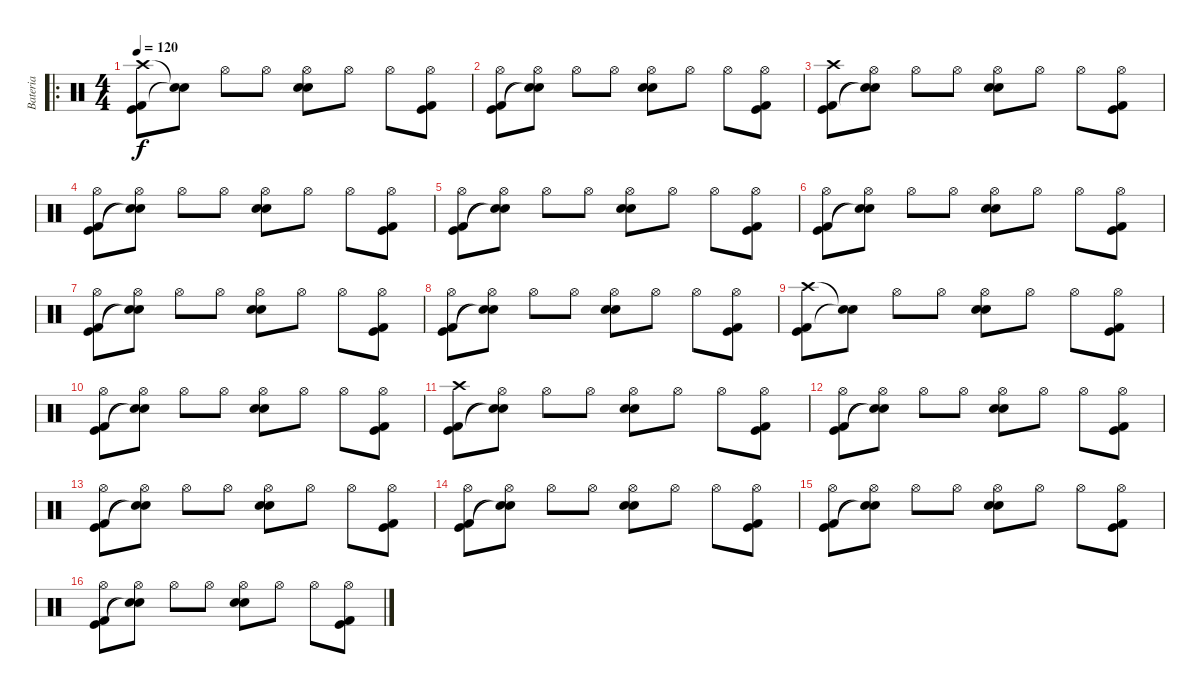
\track ("Bateria" "Bateria") {instrument percussion}
\staff {score}
\articulation defaults
\ro
\ts (4 4)
\tempo 120
\clef neutral
\ks c
("Crash high (hit)" "Kick (hit) 2" "Kick (hit)").8{dy f} ("Snare (hit)"{t} "Snare (hit)"{t}).8 "Hi-Hat (open)".8 "Hi-Hat (open)".8 ("Hi-Hat (open)" "Electric Snare (hit)" "Snare (hit) 2").8 "Hi-Hat (open)".8 "Hi-Hat (open)".8 ("Hi-Hat (open)" "Kick (hit)" "Kick (hit) 2").8 |
("Hi-Hat (open)" "Kick (hit)" "Kick (hit) 2").8 ("Hi-Hat (open)" "Snare (hit)"{t} "Snare (hit)"{t}).8 "Hi-Hat (open)".8 "Hi-Hat (open)".8 ("Hi-Hat (open)" "Electric Snare (hit)" "Snare (hit) 2").8 "Hi-Hat (open)".8 "Hi-Hat (open)".8 ("Hi-Hat (open)" "Kick (hit)" "Kick (hit) 2").8 |
("Crash high (hit)" "Kick (hit)" "Kick (hit) 2").8 ("Hi-Hat (open)" "Snare (hit)"{t} "Snare (hit)"{t}).8 "Hi-Hat (open)".8 "Hi-Hat (open)".8 ("Hi-Hat (open)" "Electric Snare (hit)" "Snare (hit) 2").8 "Hi-Hat (open)".8 "Hi-Hat (open)".8 ("Hi-Hat (open)" "Kick (hit)" "Kick (hit) 2").8 |
("Hi-Hat (open)" "Kick (hit)" "Kick (hit) 2").8 ("Hi-Hat (open)" "Snare (hit)"{t} "Snare (hit)"{t}).8 "Hi-Hat (open)".8 "Hi-Hat (open)".8 ("Hi-Hat (open)" "Electric Snare (hit)" "Snare (hit) 2").8 "Hi-Hat (open)".8 "Hi-Hat (open)".8 ("Hi-Hat (open)" "Kick (hit)" "Kick (hit) 2").8 |
("Hi-Hat (open)" "Kick (hit)" "Kick (hit) 2").8 ("Hi-Hat (open)" "Snare (hit)"{t} "Snare (hit)"{t}).8 "Hi-Hat (open)".8 "Hi-Hat (open)".8 ("Hi-Hat (open)" "Electric Snare (hit)" "Snare (hit) 2").8 "Hi-Hat (open)".8 "Hi-Hat (open)".8 ("Hi-Hat (open)" "Kick (hit)" "Kick (hit) 2").8 |
("Hi-Hat (open)" "Kick (hit)" "Kick (hit) 2").8 ("Hi-Hat (open)" "Snare (hit)"{t} "Snare (hit)"{t}).8 "Hi-Hat (open)".8 "Hi-Hat (open)".8 ("Hi-Hat (open)" "Electric Snare (hit)" "Snare (hit) 2").8 "Hi-Hat (open)".8 "Hi-Hat (open)".8 ("Hi-Hat (open)" "Kick (hit)" "Kick (hit) 2").8 |
("Hi-Hat (open)" "Kick (hit)" "Kick (hit) 2").8 ("Hi-Hat (open)" "Snare (hit)"{t} "Snare (hit)"{t}).8 "Hi-Hat (open)".8 "Hi-Hat (open)".8 ("Hi-Hat (open)" "Electric Snare (hit)" "Snare (hit) 2").8 "Hi-Hat (open)".8 "Hi-Hat (open)".8 ("Hi-Hat (open)" "Kick (hit)" "Kick (hit) 2").8 |
("Hi-Hat (open)" "Kick (hit)" "Kick (hit) 2").8 ("Hi-Hat (open)" "Snare (hit)"{t} "Snare (hit)"{t}).8 "Hi-Hat (open)".8 "Hi-Hat (open)".8 ("Hi-Hat (open)" "Electric Snare (hit)" "Snare (hit) 2").8 "Hi-Hat (open)".8 "Hi-Hat (open)".8 ("Hi-Hat (open)" "Kick (hit)" "Kick (hit) 2").8 |
("Crash high (hit)" "Kick (hit) 2" "Kick (hit)").8 ("Snare (hit)"{t} "Snare (hit)"{t}).8 "Hi-Hat (open)".8 "Hi-Hat (open)".8 ("Hi-Hat (open)" "Electric Snare (hit)" "Snare (hit) 2").8 "Hi-Hat (open)".8 "Hi-Hat (open)".8 ("Hi-Hat (open)" "Kick (hit)" "Kick (hit) 2").8 |
("Hi-Hat (open)" "Kick (hit)" "Kick (hit) 2").8 ("Hi-Hat (open)" "Snare (hit)"{t} "Snare (hit)"{t}).8 "Hi-Hat (open)".8 "Hi-Hat (open)".8 ("Hi-Hat (open)" "Electric Snare (hit)" "Snare (hit) 2").8 "Hi-Hat (open)".8 "Hi-Hat (open)".8 ("Hi-Hat (open)" "Kick (hit)" "Kick (hit) 2").8 |
("Crash high (hit)" "Kick (hit)" "Kick (hit) 2").8 ("Hi-Hat (open)" "Snare (hit)"{t} "Snare (hit)"{t}).8 "Hi-Hat (open)".8 "Hi-Hat (open)".8 ("Hi-Hat (open)" "Electric Snare (hit)" "Snare (hit) 2").8 "Hi-Hat (open)".8 "Hi-Hat (open)".8 ("Hi-Hat (open)" "Kick (hit)" "Kick (hit) 2").8 |
("Hi-Hat (open)" "Kick (hit)" "Kick (hit) 2").8 ("Hi-Hat (open)" "Snare (hit)"{t} "Snare (hit)"{t}).8 "Hi-Hat (open)".8 "Hi-Hat (open)".8 ("Hi-Hat (open)" "Electric Snare (hit)" "Snare (hit) 2").8 "Hi-Hat (open)".8 "Hi-Hat (open)".8 ("Hi-Hat (open)" "Kick (hit)" "Kick (hit) 2").8 |
("Hi-Hat (open)" "Kick (hit)" "Kick (hit) 2").8 ("Hi-Hat (open)" "Snare (hit)"{t} "Snare (hit)"{t}).8 "Hi-Hat (open)".8 "Hi-Hat (open)".8 ("Hi-Hat (open)" "Electric Snare (hit)" "Snare (hit) 2").8 "Hi-Hat (open)".8 "Hi-Hat (open)".8 ("Hi-Hat (open)" "Kick (hit)" "Kick (hit) 2").8 |
("Hi-Hat (open)" "Kick (hit)" "Kick (hit) 2").8 ("Hi-Hat (open)" "Snare (hit)"{t} "Snare (hit)"{t}).8 "Hi-Hat (open)".8 "Hi-Hat (open)".8 ("Hi-Hat (open)" "Electric Snare (hit)" "Snare (hit) 2").8 "Hi-Hat (open)".8 "Hi-Hat (open)".8 ("Hi-Hat (open)" "Kick (hit)" "Kick (hit) 2").8 |
("Hi-Hat (open)" "Kick (hit)" "Kick (hit) 2").8 ("Hi-Hat (open)" "Snare (hit)"{t} "Snare (hit)"{t}).8 "Hi-Hat (open)".8 "Hi-Hat (open)".8 ("Hi-Hat (open)" "Electric Snare (hit)" "Snare (hit) 2").8 "Hi-Hat (open)".8 "Hi-Hat (open)".8 ("Hi-Hat (open)" "Kick (hit)" "Kick (hit) 2").8 |
("Hi-Hat (open)" "Kick (hit)" "Kick (hit) 2").8 ("Hi-Hat (open)" "Snare (hit)"{t} "Snare (hit)"{t}).8 "Hi-Hat (open)".8 "Hi-Hat (open)".8 ("Hi-Hat (open)" "Electric Snare (hit)" "Snare (hit) 2").8 "Hi-Hat (open)".8 "Hi-Hat (open)".8 ("Hi-Hat (open)" "Kick (hit)" "Kick (hit) 2").8
